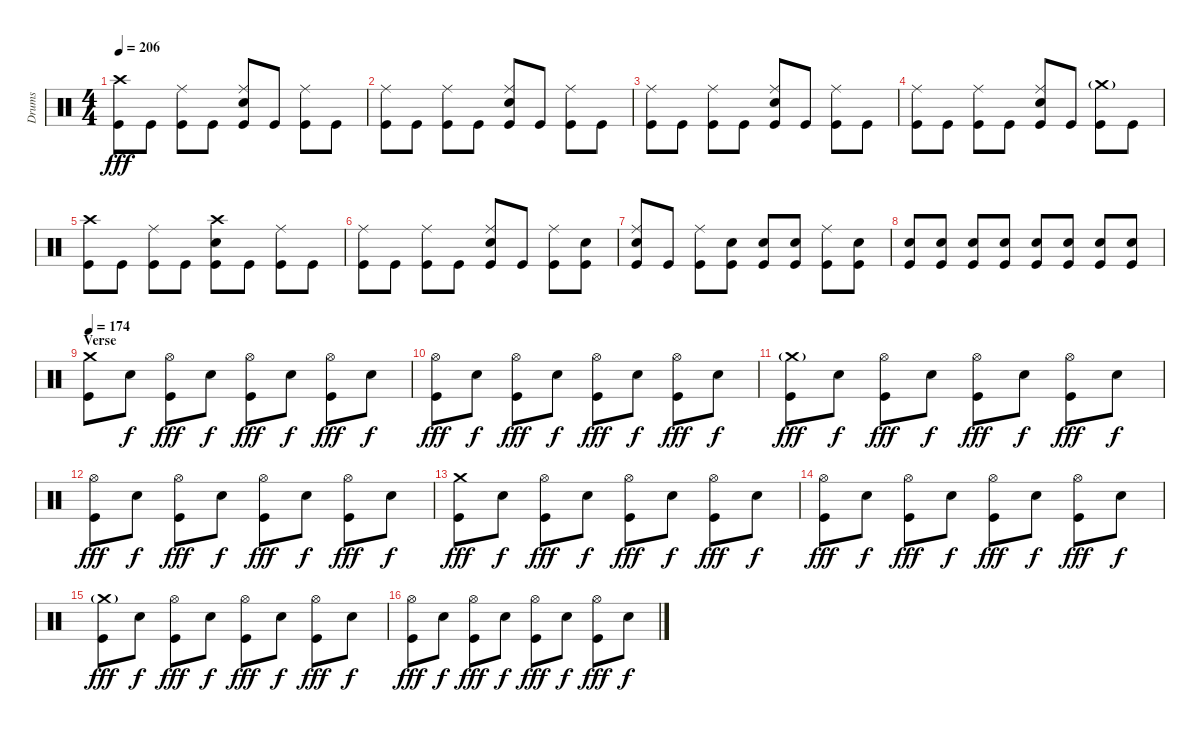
\track ("Drums" "Drums") {instrument percussion}
\staff {score}
\articulation defaults
\ts (4 4)
\tempo 206
\clef neutral
\ks c
("Crash high (hit)" "Kick (hit)").8{dy fff} "Kick (hit)".8 ("Ride (middle)" "Kick (hit)").8 "Kick (hit)".8 ("Ride (middle)" "Snare (hit) 2" "Kick (hit)").8 "Kick (hit)".8 ("Ride (middle)" "Kick (hit)").8 "Kick (hit)".8 |
("Ride (middle)" "Kick (hit)").8 "Kick (hit)".8 ("Ride (middle)" "Kick (hit)").8 "Kick (hit)".8 ("Ride (middle)" "Snare (hit) 2" "Kick (hit)").8 "Kick (hit)".8 ("Ride (middle)" "Kick (hit)").8 "Kick (hit)".8 |
("Ride (middle)" "Kick (hit)").8 "Kick (hit)".8 ("Ride (middle)" "Kick (hit)").8 "Kick (hit)".8 ("Ride (middle)" "Snare (hit) 2" "Kick (hit)").8 "Kick (hit)".8 ("Ride (middle)" "Kick (hit)").8 "Kick (hit)".8 |
("Ride (middle)" "Kick (hit)").8 "Kick (hit)".8 ("Ride (middle)" "Kick (hit)").8 "Kick (hit)".8 ("Ride (middle)" "Snare (hit) 2" "Kick (hit)").8 "Kick (hit)".8 ("Crash medium (hit)"{g} "Kick (hit)").8 "Kick (hit)".8 |
("Crash high (hit)" "Kick (hit)").8 "Kick (hit)".8 ("Ride (middle)" "Kick (hit)").8 "Kick (hit)".8 ("Crash high (hit)" "Snare (hit) 2" "Kick (hit)").8 "Kick (hit)".8 ("Ride (middle)" "Kick (hit)").8 "Kick (hit)".8 |
("Ride (middle)" "Kick (hit)").8 "Kick (hit)".8 ("Ride (middle)" "Kick (hit)").8 "Kick (hit)".8 ("Ride (middle)" "Snare (hit) 2" "Kick (hit)").8 "Kick (hit)".8 ("Ride (middle)" "Kick (hit)").8 ("Snare (hit) 2" "Kick (hit)").8 |
("Ride (middle)" "Snare (hit) 2" "Kick (hit)").8 "Kick (hit)".8 ("Ride (middle)" "Kick (hit)").8 ("Snare (hit) 2" "Kick (hit)").8 ("Snare (hit) 2" "Kick (hit)").8 ("Snare (hit) 2" "Kick (hit)").8 ("Ride (middle)" "Kick (hit)").8 ("Snare (hit) 2" "Kick (hit)").8 |
("Snare (hit) 2" "Kick (hit)").8 ("Snare (hit) 2" "Kick (hit)").8 ("Snare (hit) 2" "Kick (hit)").8 ("Snare (hit) 2" "Kick (hit)").8 ("Snare (hit) 2" "Kick (hit)").8 ("Snare (hit) 2" "Kick (hit)").8 ("Snare (hit) 2" "Kick (hit)").8 ("Snare (hit) 2" "Kick (hit)").8 |
\section ("" "Verse")
\tempo 174
("Crash medium (hit)" "Kick (hit)").8 "Snare (hit) 2".8{dy f} ("Hi-Hat (open)" "Kick (hit)").8{dy fff} "Snare (hit) 2".8{dy f} ("Hi-Hat (open)" "Kick (hit)").8{dy fff} "Snare (hit) 2".8{dy f} ("Hi-Hat (open)" "Kick (hit)").8{dy fff} "Snare (hit) 2".8{dy f} |
("Hi-Hat (open)" "Kick (hit)").8{dy fff} "Snare (hit) 2".8{dy f} ("Hi-Hat (open)" "Kick (hit)").8{dy fff} "Snare (hit) 2".8{dy f} ("Hi-Hat (open)" "Kick (hit)").8{dy fff} "Snare (hit) 2".8{dy f} ("Hi-Hat (open)" "Kick (hit)").8{dy fff} "Snare (hit) 2".8{dy f} |
("Crash medium (hit)"{g} "Kick (hit)").8{dy fff} "Snare (hit) 2".8{dy f} ("Hi-Hat (open)" "Kick (hit)").8{dy fff} "Snare (hit) 2".8{dy f} ("Hi-Hat (open)" "Kick (hit)").8{dy fff} "Snare (hit) 2".8{dy f} ("Hi-Hat (open)" "Kick (hit)").8{dy fff} "Snare (hit) 2".8{dy f} |
("Hi-Hat (open)" "Kick (hit)").8{dy fff} "Snare (hit) 2".8{dy f} ("Hi-Hat (open)" "Kick (hit)").8{dy fff} "Snare (hit) 2".8{dy f} ("Hi-Hat (open)" "Kick (hit)").8{dy fff} "Snare (hit) 2".8{dy f} ("Hi-Hat (open)" "Kick (hit)").8{dy fff} "Snare (hit) 2".8{dy f} |
("Crash medium (hit)" "Kick (hit)").8{dy fff} "Snare (hit) 2".8{dy f} ("Hi-Hat (open)" "Kick (hit)").8{dy fff} "Snare (hit) 2".8{dy f} ("Hi-Hat (open)" "Kick (hit)").8{dy fff} "Snare (hit) 2".8{dy f} ("Hi-Hat (open)" "Kick (hit)").8{dy fff} "Snare (hit) 2".8{dy f} |
("Hi-Hat (open)" "Kick (hit)").8{dy fff} "Snare (hit) 2".8{dy f} ("Hi-Hat (open)" "Kick (hit)").8{dy fff} "Snare (hit) 2".8{dy f} ("Hi-Hat (open)" "Kick (hit)").8{dy fff} "Snare (hit) 2".8{dy f} ("Hi-Hat (open)" "Kick (hit)").8{dy fff} "Snare (hit) 2".8{dy f} |
("Crash medium (hit)"{g} "Kick (hit)").8{dy fff} "Snare (hit) 2".8{dy f} ("Hi-Hat (open)" "Kick (hit)").8{dy fff} "Snare (hit) 2".8{dy f} ("Hi-Hat (open)" "Kick (hit)").8{dy fff} "Snare (hit) 2".8{dy f} ("Hi-Hat (open)" "Kick (hit)").8{dy fff} "Snare (hit) 2".8{dy f} |
("Hi-Hat (open)" "Kick (hit)").8{dy fff} "Snare (hit) 2".8{dy f} ("Hi-Hat (open)" "Kick (hit)").8{dy fff} "Snare (hit) 2".8{dy f} ("Hi-Hat (open)" "Kick (hit)").8{dy fff} "Snare (hit) 2".8{dy f} ("Hi-Hat (open)" "Kick (hit)").8{dy fff} "Snare (hit) 2".8{dy f}
